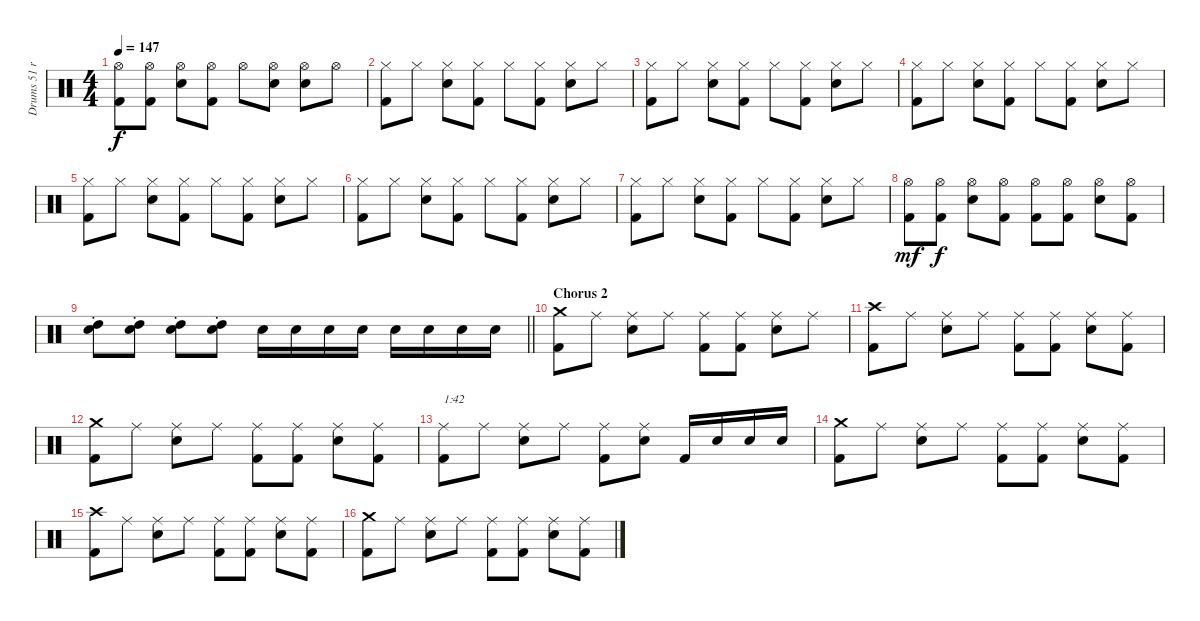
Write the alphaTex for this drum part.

\track ("Drums 51 ride" "Drums 51 r") {mute instrument percussion}
\staff {score}
\articulation defaults
\ts (4 4)
\tempo 147
\clef neutral
\ks c
("Hi-Hat (open)" "Kick (hit) 2").8{dy f} ("Hi-Hat (open)" "Kick (hit) 2").8 ("Hi-Hat (open)" "Snare (hit) 2").8 ("Hi-Hat (open)" "Kick (hit) 2").8 "Hi-Hat (open)".8 ("Hi-Hat (open)" "Snare (hit) 2").8 ("Hi-Hat (open)" "Snare (hit) 2").8 "Hi-Hat (open)".8 |
("Hi-Hat (closed)" "Kick (hit) 2").8 "Hi-Hat (closed)".8 ("Hi-Hat (closed)" "Snare (hit) 2").8 ("Hi-Hat (closed)" "Kick (hit) 2").8 "Hi-Hat (closed)".8 ("Hi-Hat (closed)" "Kick (hit) 2").8 ("Hi-Hat (closed)" "Snare (hit) 2").8 "Hi-Hat (closed)".8 |
("Hi-Hat (closed)" "Kick (hit) 2").8 "Hi-Hat (closed)".8 ("Hi-Hat (closed)" "Snare (hit) 2").8 ("Hi-Hat (closed)" "Kick (hit) 2").8 "Hi-Hat (closed)".8 ("Hi-Hat (closed)" "Kick (hit) 2").8 ("Hi-Hat (closed)" "Snare (hit) 2").8 "Hi-Hat (closed)".8 |
("Hi-Hat (closed)" "Kick (hit) 2").8 "Hi-Hat (closed)".8 ("Hi-Hat (closed)" "Snare (hit) 2").8 ("Hi-Hat (closed)" "Kick (hit) 2").8 "Hi-Hat (closed)".8 ("Hi-Hat (closed)" "Kick (hit) 2").8 ("Hi-Hat (closed)" "Snare (hit) 2").8 "Hi-Hat (closed)".8 |
("Hi-Hat (closed)" "Kick (hit) 2").8 "Hi-Hat (closed)".8 ("Hi-Hat (closed)" "Snare (hit) 2").8 ("Hi-Hat (closed)" "Kick (hit) 2").8 "Hi-Hat (closed)".8 ("Hi-Hat (closed)" "Kick (hit) 2").8 ("Hi-Hat (closed)" "Snare (hit) 2").8 "Hi-Hat (closed)".8 |
("Hi-Hat (closed)" "Kick (hit) 2").8 "Hi-Hat (closed)".8 ("Hi-Hat (closed)" "Snare (hit) 2").8 ("Hi-Hat (closed)" "Kick (hit) 2").8 "Hi-Hat (closed)".8 ("Hi-Hat (closed)" "Kick (hit) 2").8 ("Hi-Hat (closed)" "Snare (hit) 2").8 "Hi-Hat (closed)".8 |
("Hi-Hat (closed)" "Kick (hit) 2").8 "Hi-Hat (closed)".8 ("Hi-Hat (closed)" "Snare (hit) 2").8 ("Hi-Hat (closed)" "Kick (hit) 2").8 "Hi-Hat (closed)".8 ("Hi-Hat (closed)" "Kick (hit) 2").8 ("Hi-Hat (closed)" "Snare (hit) 2").8 "Hi-Hat (closed)".8 |
("Hi-Hat (open)" "Kick (hit) 2").8{dy mf} ("Hi-Hat (open)" "Kick (hit) 2").8{dy f} ("Hi-Hat (open)" "Snare (hit) 2").8 ("Hi-Hat (open)" "Kick (hit) 2").8 ("Hi-Hat (open)" "Kick (hit) 2").8 ("Hi-Hat (open)" "Kick (hit) 2").8 ("Hi-Hat (open)" "Snare (hit) 2").8 ("Hi-Hat (open)" "Kick (hit) 2").8 |
\barLineRight lightlight
("High Tom (hit)" "Snare (hit) 2"{st}).8 ("High Tom (hit)" "Snare (hit) 2"{st}).8 ("High Tom (hit)" "Snare (hit) 2"{st}).8 ("High Tom (hit)" "Snare (hit) 2"{st}).8 "Snare (hit) 2".16 "Snare (hit) 2".16 "Snare (hit) 2".16 "Snare (hit) 2".16 "Snare (hit) 2".16 "Snare (hit) 2".16 "Snare (hit) 2".16 "Snare (hit) 2".16 |
\section ("" "Chorus 2")
("Crash medium (hit)" "Kick (hit) 2").8 "Ride (middle)".8 ("Ride (middle)" "Snare (hit) 2").8 "Ride (middle)".8 ("Ride (middle)" "Kick (hit) 2").8 ("Ride (middle)" "Kick (hit) 2").8 ("Ride (middle)" "Snare (hit) 2").8 "Ride (middle)".8 |
("Crash high (hit)" "Kick (hit) 2").8 "Ride (middle)".8 ("Ride (middle)" "Snare (hit) 2").8 "Ride (middle)".8 ("Ride (middle)" "Kick (hit) 2").8 ("Ride (middle)" "Kick (hit) 2").8 ("Ride (middle)" "Snare (hit) 2").8 ("Ride (middle)" "Kick (hit) 2").8 |
("Crash medium (hit)" "Kick (hit) 2").8 "Ride (middle)".8 ("Ride (middle)" "Snare (hit) 2").8 "Ride (middle)".8 ("Ride (middle)" "Kick (hit) 2").8 ("Ride (middle)" "Kick (hit) 2").8 ("Ride (middle)" "Snare (hit) 2").8 ("Ride (middle)" "Kick (hit) 2").8 |
("Ride (middle)" "Kick (hit) 2").8{txt "1:42"} "Ride (middle)".8 ("Ride (middle)" "Snare (hit) 2").8 "Ride (middle)".8 ("Ride (middle)" "Kick (hit) 2").8 ("Ride (middle)" "Snare (hit) 2").8 "Kick (hit) 2".16 "Snare (hit) 2".16 "Snare (hit) 2".16 "Snare (hit) 2".16 |
("Crash medium (hit)" "Kick (hit) 2").8 "Ride (middle)".8 ("Ride (middle)" "Snare (hit) 2").8 "Ride (middle)".8 ("Ride (middle)" "Kick (hit) 2").8 ("Ride (middle)" "Kick (hit) 2").8 ("Ride (middle)" "Snare (hit) 2").8 ("Ride (middle)" "Kick (hit) 2").8 |
("Crash high (hit)" "Kick (hit) 2").8 "Ride (middle)".8 ("Ride (middle)" "Snare (hit) 2").8 "Ride (middle)".8 ("Ride (middle)" "Kick (hit) 2").8 ("Ride (middle)" "Kick (hit) 2").8 ("Ride (middle)" "Snare (hit) 2").8 ("Ride (middle)" "Kick (hit) 2").8 |
("Crash medium (hit)" "Kick (hit) 2").8 "Ride (middle)".8 ("Ride (middle)" "Snare (hit) 2").8 "Ride (middle)".8 ("Ride (middle)" "Kick (hit) 2").8 ("Ride (middle)" "Kick (hit) 2").8 ("Ride (middle)" "Snare (hit) 2").8 ("Ride (middle)" "Kick (hit) 2").8
